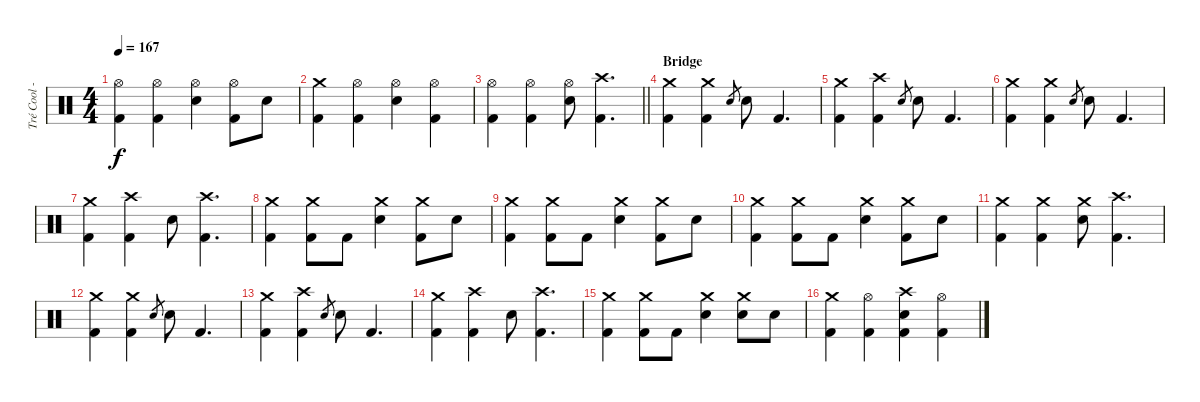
\track ("Tré Cool - Drums" "Tré Cool -") {instrument percussion}
\staff {score}
\articulation defaults
\ts (4 4)
\tempo 167
\clef neutral
\ks c
("Hi-Hat (open)" "Kick (hit) 2").4{dy f} ("Hi-Hat (open)" "Kick (hit) 2").4 ("Hi-Hat (open)" "Electric Snare (hit)").4 ("Hi-Hat (open)" "Kick (hit) 2").8 "Electric Snare (hit)".8 |
("Crash medium (hit)" "Kick (hit) 2").4 ("Hi-Hat (open)" "Kick (hit) 2").4 ("Hi-Hat (open)" "Electric Snare (hit)").4 ("Hi-Hat (open)" "Kick (hit) 2").4 |
\barLineRight lightlight
("Hi-Hat (open)" "Kick (hit) 2").4 ("Hi-Hat (open)" "Kick (hit) 2").4 ("Hi-Hat (open)" "Electric Snare (hit)").8 ("Crash high (hit)" "Kick (hit) 2").4{d} |
\section ("" "Bridge")
("Crash medium (hit)" "Kick (hit) 2").4 ("Crash medium (hit)" "Kick (hit) 2").4 "Electric Snare (hit)".8{gr} "Electric Snare (hit)".8 "Kick (hit) 2".4{d} |
("Crash medium (hit)" "Kick (hit) 2").4 ("Crash high (hit)" "Kick (hit) 2").4 "Electric Snare (hit)".8{gr} "Electric Snare (hit)".8 "Kick (hit) 2".4{d} |
("Crash medium (hit)" "Kick (hit) 2").4 ("Crash medium (hit)" "Kick (hit) 2").4 "Electric Snare (hit)".8{gr} "Electric Snare (hit)".8 "Kick (hit) 2".4{d} |
("Crash medium (hit)" "Kick (hit) 2").4 ("Crash high (hit)" "Kick (hit) 2").4 "Electric Snare (hit)".8 ("Crash high (hit)" "Kick (hit) 2").4{d} |
("Crash medium (hit)" "Kick (hit) 2").4 ("Crash medium (hit)" "Kick (hit) 2").8 "Kick (hit) 2".8 ("Crash medium (hit)" "Electric Snare (hit)").4 ("Crash medium (hit)" "Kick (hit) 2").8 "Electric Snare (hit)".8 |
("Crash medium (hit)" "Kick (hit) 2").4 ("Crash medium (hit)" "Kick (hit) 2").8 "Kick (hit) 2".8 ("Crash medium (hit)" "Electric Snare (hit)").4 ("Crash medium (hit)" "Kick (hit) 2").8 "Electric Snare (hit)".8 |
("Crash medium (hit)" "Kick (hit) 2").4 ("Crash medium (hit)" "Kick (hit) 2").8 "Kick (hit) 2".8 ("Crash medium (hit)" "Electric Snare (hit)").4 ("Crash medium (hit)" "Kick (hit) 2").8 "Electric Snare (hit)".8 |
("Crash medium (hit)" "Kick (hit) 2").4 ("Crash medium (hit)" "Kick (hit) 2").4 ("Crash medium (hit)" "Electric Snare (hit)").8 ("Crash high (hit)" "Kick (hit) 2").4{d} |
("Crash medium (hit)" "Kick (hit) 2").4 ("Crash medium (hit)" "Kick (hit) 2").4 "Electric Snare (hit)".8{gr} "Electric Snare (hit)".8 "Kick (hit) 2".4{d} |
("Crash medium (hit)" "Kick (hit) 2").4 ("Crash high (hit)" "Kick (hit) 2").4 "Electric Snare (hit)".8{gr} "Electric Snare (hit)".8 "Kick (hit) 2".4{d} |
("Crash medium (hit)" "Kick (hit) 2").4 ("Crash high (hit)" "Kick (hit) 2").4 "Electric Snare (hit)".8 ("Crash high (hit)" "Kick (hit) 2").4{d} |
("Crash medium (hit)" "Kick (hit) 2").4 ("Crash medium (hit)" "Kick (hit) 2").8 "Kick (hit) 2".8 ("Crash medium (hit)" "Electric Snare (hit)").4 ("Crash medium (hit)" "Electric Snare (hit)").8 "Electric Snare (hit)".8 |
("Crash medium (hit)" "Kick (hit) 2").4 ("Hi-Hat (open)" "Kick (hit) 2").4 ("Crash high (hit)" "Electric Snare (hit)" "Kick (hit) 2").4 ("Hi-Hat (open)" "Kick (hit) 2").4
